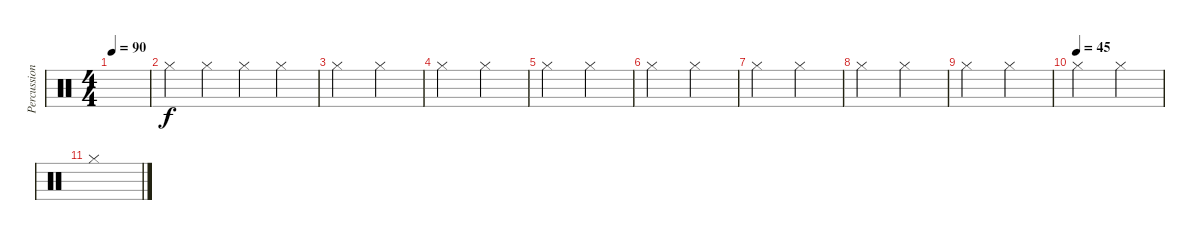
\track ("Percussion" "Percussion") {instrument percussion}
\staff {score}
\articulation defaults
\ts (4 4)
\tempo 90
\clef neutral
\ks c
|
"Hi-Hat (closed)".4 "Hi-Hat (closed)".4 "Hi-Hat (closed)".4 "Hi-Hat (closed)".4 |
"Hi-Hat (closed)".2 "Hi-Hat (closed)".2 |
"Hi-Hat (closed)".2 "Hi-Hat (closed)".2 |
"Hi-Hat (closed)".2 "Hi-Hat (closed)".2 |
"Hi-Hat (closed)".2 "Hi-Hat (closed)".2 |
"Hi-Hat (closed)".2 "Hi-Hat (closed)".2 |
"Hi-Hat (closed)".2 "Hi-Hat (closed)".2 |
"Hi-Hat (closed)".2 "Hi-Hat (closed)".2 |
\tempo (45)
"Hi-Hat (closed)".2 "Hi-Hat (closed)".2 |
"Hi-Hat (closed)".1
